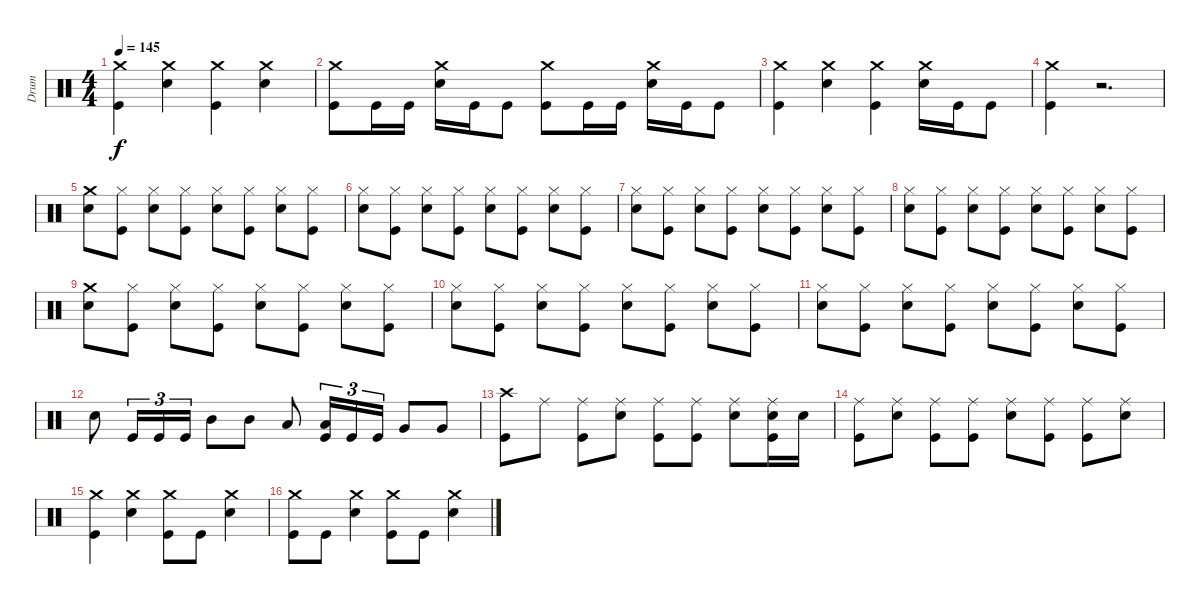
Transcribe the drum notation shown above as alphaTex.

\track ("Drum" "Drum") {instrument percussion}
\staff {score}
\articulation defaults
\ts (4 4)
\tempo 145
\clef neutral
\ks c
("Kick (hit)" "Crash medium (hit)").4{dy f} ("Electric Snare (hit)" "Crash medium (hit)").4 ("Kick (hit)" "Crash medium (hit)").4 ("Electric Snare (hit)" "Crash medium (hit)").4 |
("Kick (hit)" "Crash medium (hit)").8 "Kick (hit)".16 "Kick (hit)".16 ("Electric Snare (hit)" "Crash medium (hit)").16 "Kick (hit)".16 "Kick (hit)".8 ("Kick (hit)" "Crash medium (hit)").8 "Kick (hit)".16 "Kick (hit)".16 ("Electric Snare (hit)" "Crash medium (hit)").16 "Kick (hit)".16 "Kick (hit)".8 |
("Kick (hit)" "Crash medium (hit)").4 ("Electric Snare (hit)" "Crash medium (hit)").4 ("Kick (hit)" "Crash medium (hit)").4 ("Electric Snare (hit)" "Crash medium (hit)").16 "Kick (hit)".16 "Kick (hit)".8 |
("Kick (hit)" "Crash medium (hit)").4 r.2{d} |
("Electric Snare (hit)" "Crash medium (hit)").8 ("Kick (hit)" "Hi-Hat (closed)").8 ("Electric Snare (hit)" "Hi-Hat (closed)").8 ("Kick (hit)" "Hi-Hat (closed)").8 ("Electric Snare (hit)" "Hi-Hat (closed)").8 ("Kick (hit)" "Hi-Hat (closed)").8 ("Electric Snare (hit)" "Hi-Hat (closed)").8 ("Kick (hit)" "Hi-Hat (closed)").8 |
("Electric Snare (hit)" "Hi-Hat (closed)").8 ("Kick (hit)" "Hi-Hat (closed)").8 ("Electric Snare (hit)" "Hi-Hat (closed)").8 ("Kick (hit)" "Hi-Hat (closed)").8 ("Electric Snare (hit)" "Hi-Hat (closed)").8 ("Kick (hit)" "Hi-Hat (closed)").8 ("Electric Snare (hit)" "Hi-Hat (closed)").8 ("Kick (hit)" "Hi-Hat (closed)").8 |
("Electric Snare (hit)" "Hi-Hat (closed)").8 ("Kick (hit)" "Hi-Hat (closed)").8 ("Electric Snare (hit)" "Hi-Hat (closed)").8 ("Kick (hit)" "Hi-Hat (closed)").8 ("Electric Snare (hit)" "Hi-Hat (closed)").8 ("Kick (hit)" "Hi-Hat (closed)").8 ("Electric Snare (hit)" "Hi-Hat (closed)").8 ("Kick (hit)" "Hi-Hat (closed)").8 |
("Electric Snare (hit)" "Hi-Hat (closed)").8 ("Kick (hit)" "Hi-Hat (closed)").8 ("Electric Snare (hit)" "Hi-Hat (closed)").8 ("Kick (hit)" "Hi-Hat (closed)").8 ("Electric Snare (hit)" "Hi-Hat (closed)").8 ("Kick (hit)" "Hi-Hat (closed)").8 ("Electric Snare (hit)" "Hi-Hat (closed)").8 ("Kick (hit)" "Hi-Hat (closed)").8 |
("Electric Snare (hit)" "Crash medium (hit)").8 ("Kick (hit)" "Hi-Hat (closed)").8 ("Electric Snare (hit)" "Hi-Hat (closed)").8 ("Kick (hit)" "Hi-Hat (closed)").8 ("Electric Snare (hit)" "Hi-Hat (closed)").8 ("Kick (hit)" "Hi-Hat (closed)").8 ("Electric Snare (hit)" "Hi-Hat (closed)").8 ("Kick (hit)" "Hi-Hat (closed)").8 |
("Electric Snare (hit)" "Hi-Hat (closed)").8 ("Kick (hit)" "Hi-Hat (closed)").8 ("Electric Snare (hit)" "Hi-Hat (closed)").8 ("Kick (hit)" "Hi-Hat (closed)").8 ("Electric Snare (hit)" "Hi-Hat (closed)").8 ("Kick (hit)" "Hi-Hat (closed)").8 ("Electric Snare (hit)" "Hi-Hat (closed)").8 ("Kick (hit)" "Hi-Hat (closed)").8 |
("Electric Snare (hit)" "Hi-Hat (closed)").8 ("Kick (hit)" "Hi-Hat (closed)").8 ("Electric Snare (hit)" "Hi-Hat (closed)").8 ("Kick (hit)" "Hi-Hat (closed)").8 ("Electric Snare (hit)" "Hi-Hat (closed)").8 ("Kick (hit)" "Hi-Hat (closed)").8 ("Electric Snare (hit)" "Hi-Hat (closed)").8 ("Kick (hit)" "Hi-Hat (closed)").8 |
"Electric Snare (hit)".8 "Kick (hit)".16{tu (3 2)} "Kick (hit)".16{tu (3 2)} "Kick (hit)".16{tu (3 2)} "Mid Tom (hit)".8 "Mid Tom (hit)".8 "Low Tom (hit)".8 ("Kick (hit)" "Low Tom (hit)").16{tu (3 2)} "Kick (hit)".16{tu (3 2)} "Kick (hit)".16{tu (3 2)} "Very Low Tom (hit)".8 "Very Low Tom (hit)".8 |
("Kick (hit)" "Crash high (hit)").8 "Ride (middle)".8 ("Kick (hit)" "Ride (middle)").8 ("Electric Snare (hit)" "Ride (middle)").8 ("Kick (hit)" "Ride (middle)").8 ("Kick (hit)" "Ride (middle)").8 ("Electric Snare (hit)" "Ride (middle)").8 ("Kick (hit)" "Electric Snare (hit)" "Ride (middle)").16 "Electric Snare (hit)".16 |
("Kick (hit)" "Ride (middle)").8 ("Electric Snare (hit)" "Ride (middle)").8 ("Kick (hit)" "Ride (middle)").8 ("Kick (hit)" "Ride (middle)").8 ("Electric Snare (hit)" "Ride (middle)").8 ("Kick (hit)" "Ride (middle)").8 ("Kick (hit)" "Ride (middle)").8 ("Electric Snare (hit)" "Ride (middle)").8 |
("Kick (hit)" "Crash medium (hit)").4 ("Electric Snare (hit)" "Crash medium (hit)").4 ("Kick (hit)" "Crash medium (hit)").8 "Kick (hit)".8 ("Electric Snare (hit)" "Crash medium (hit)").4 |
("Kick (hit)" "Crash medium (hit)").8 "Kick (hit)".8 ("Electric Snare (hit)" "Crash medium (hit)").4 ("Kick (hit)" "Crash medium (hit)").8 "Kick (hit)".8 ("Electric Snare (hit)" "Crash medium (hit)").4
